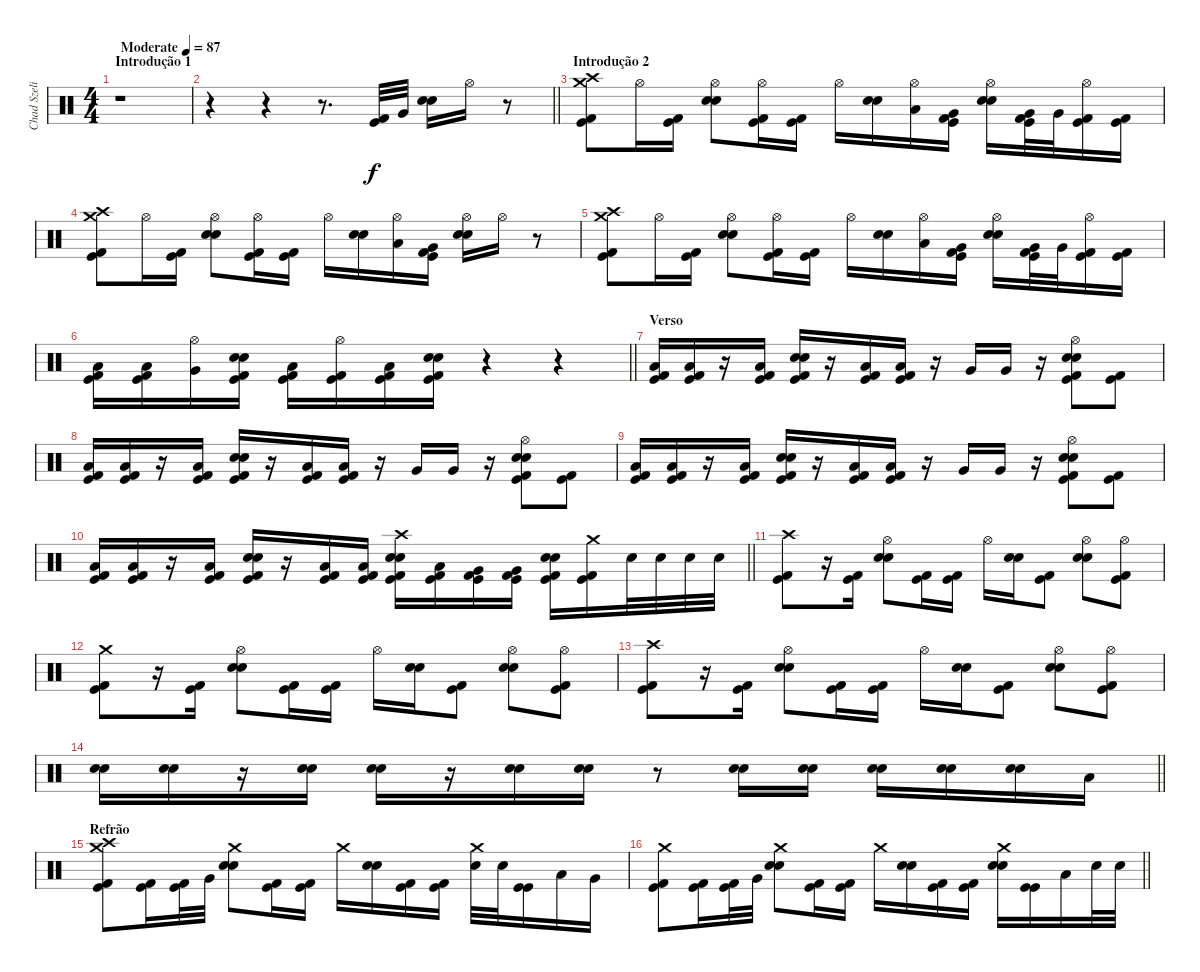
\track ("Chad Szeliga" "Chad Szeli") {instrument percussion}
\staff {score}
\articulation defaults
\ts (4 4)
\section ("" "Introdução 1")
\tempo (87 "Moderate")
\clef neutral
\ks c
r.1{dy f} |
\barLineRight lightlight
r.4 r.4 r.8{d} ("Kick (hit) 2" "Kick (hit)").32 "Very Low Tom (hit)".32 ("Snare (hit) 2" "Snare (hit) 2").16 "Hi-Hat (open)".16 r.8 |
\section ("" "Introdução 2")
("Crash high (hit)" "Kick (hit) 2" "Kick (hit)" "Crash medium (hit)").8 "Hi-Hat (open)".16 ("Kick (hit) 2" "Kick (hit)").16 ("Snare (hit) 2" "Snare (hit) 2" "Hi-Hat (open)").8 ("Kick (hit) 2" "Kick (hit)" "Hi-Hat (open)").16 ("Kick (hit) 2" "Kick (hit)").16 "Hi-Hat (open)".16 ("Snare (hit) 2" "Snare (hit) 2").16 ("Low Tom (hit)" "Hi-Hat (open)").16 ("Kick (hit) 2" "Kick (hit)" "Very Low Tom (hit)").16 ("Snare (hit) 2" "Snare (hit) 2" "Hi-Hat (open)").16 ("Kick (hit) 2" "Kick (hit)" "Very Low Tom (hit)").32 "Very Low Tom (hit)".32 ("Kick (hit) 2" "Kick (hit)" "Hi-Hat (open)").16 ("Kick (hit) 2" "Kick (hit)").16 |
("Crash high (hit)" "Kick (hit) 2" "Kick (hit)" "Crash medium (hit)").8 "Hi-Hat (open)".16 ("Kick (hit) 2" "Kick (hit)").16 ("Snare (hit) 2" "Snare (hit) 2" "Hi-Hat (open)").8 ("Kick (hit) 2" "Kick (hit)" "Hi-Hat (open)").16 ("Kick (hit) 2" "Kick (hit)").16 "Hi-Hat (open)".16 ("Snare (hit) 2" "Snare (hit) 2").16 ("Low Tom (hit)" "Hi-Hat (open)").16 ("Kick (hit) 2" "Kick (hit)" "Very Low Tom (hit)").16 ("Snare (hit) 2" "Snare (hit) 2" "Hi-Hat (open)").16 "Hi-Hat (open)".16 r.8 |
("Crash high (hit)" "Kick (hit) 2" "Kick (hit)" "Crash medium (hit)").8 "Hi-Hat (open)".16 ("Kick (hit) 2" "Kick (hit)").16 ("Snare (hit) 2" "Snare (hit) 2" "Hi-Hat (open)").8 ("Kick (hit) 2" "Kick (hit)" "Hi-Hat (open)").16 ("Kick (hit) 2" "Kick (hit)").16 "Hi-Hat (open)".16 ("Snare (hit) 2" "Snare (hit) 2").16 ("Low Tom (hit)" "Hi-Hat (open)").16 ("Kick (hit) 2" "Kick (hit)" "Very Low Tom (hit)").16 ("Snare (hit) 2" "Snare (hit) 2" "Hi-Hat (open)").16 ("Kick (hit) 2" "Kick (hit)" "Very Low Tom (hit)").32 "Very Low Tom (hit)".32 ("Kick (hit) 2" "Kick (hit)" "Hi-Hat (open)").16 ("Kick (hit) 2" "Kick (hit)").16 |
\barLineRight lightlight
("Kick (hit) 2" "Kick (hit)" "Low Tom (hit)").16 ("Kick (hit) 2" "Kick (hit)" "Low Tom (hit)").16 ("Very Low Tom (hit)" "Hi-Hat (open)").16 ("Kick (hit) 2" "Kick (hit)" "Snare (hit) 2" "Snare (hit) 2").16 ("Kick (hit) 2" "Kick (hit)" "Low Tom (hit)").16 ("Kick (hit) 2" "Kick (hit)" "Hi-Hat (open)").16 ("Kick (hit) 2" "Kick (hit)" "Low Tom (hit)").16 ("Kick (hit) 2" "Kick (hit)" "Snare (hit) 2" "Snare (hit) 2").16 r.4 r.4 |
\section ("" "Verso")
("Kick (hit) 2" "Kick (hit)" "Low Tom (hit)").16 ("Kick (hit) 2" "Kick (hit)" "Low Tom (hit)").16 r.16 ("Kick (hit) 2" "Kick (hit)" "Low Tom (hit)").16 ("Kick (hit) 2" "Kick (hit)" "Snare (hit) 2" "Snare (hit) 2").16 r.16 ("Kick (hit) 2" "Kick (hit)" "Low Tom (hit)").16 ("Kick (hit) 2" "Kick (hit)" "Low Tom (hit)").16 r.16 "Very Low Tom (hit)".16 "Very Low Tom (hit)".16 r.16 ("Kick (hit) 2" "Kick (hit)" "Snare (hit) 2" "Snare (hit) 2" "Hi-Hat (open)").8 ("Kick (hit) 2" "Kick (hit)").8 |
("Kick (hit) 2" "Kick (hit)" "Low Tom (hit)").16 ("Kick (hit) 2" "Kick (hit)" "Low Tom (hit)").16 r.16 ("Kick (hit) 2" "Kick (hit)" "Low Tom (hit)").16 ("Kick (hit) 2" "Kick (hit)" "Snare (hit) 2" "Snare (hit) 2").16 r.16 ("Kick (hit) 2" "Kick (hit)" "Low Tom (hit)").16 ("Kick (hit) 2" "Kick (hit)" "Low Tom (hit)").16 r.16 "Very Low Tom (hit)".16 "Very Low Tom (hit)".16 r.16 ("Kick (hit) 2" "Kick (hit)" "Snare (hit) 2" "Snare (hit) 2" "Hi-Hat (open)").8 ("Kick (hit) 2" "Kick (hit)").8 |
("Kick (hit) 2" "Kick (hit)" "Low Tom (hit)").16 ("Kick (hit) 2" "Kick (hit)" "Low Tom (hit)").16 r.16 ("Kick (hit) 2" "Kick (hit)" "Low Tom (hit)").16 ("Kick (hit) 2" "Kick (hit)" "Snare (hit) 2" "Snare (hit) 2").16 r.16 ("Kick (hit) 2" "Kick (hit)" "Low Tom (hit)").16 ("Kick (hit) 2" "Kick (hit)" "Low Tom (hit)").16 r.16 "Very Low Tom (hit)".16 "Very Low Tom (hit)".16 r.16 ("Kick (hit) 2" "Kick (hit)" "Snare (hit) 2" "Snare (hit) 2" "Hi-Hat (open)").8 ("Kick (hit) 2" "Kick (hit)").8 |
\barLineRight lightlight
("Kick (hit) 2" "Kick (hit)" "Low Tom (hit)").16 ("Kick (hit) 2" "Kick (hit)" "Low Tom (hit)").16 r.16 ("Kick (hit) 2" "Kick (hit)" "Low Tom (hit)").16 ("Kick (hit) 2" "Kick (hit)" "Snare (hit) 2" "Snare (hit) 2").16 r.16 ("Kick (hit) 2" "Kick (hit)" "Low Tom (hit)").16 ("Kick (hit) 2" "Kick (hit)" "Low Tom (hit)").16 ("Crash high (hit)" "Kick (hit) 2" "Kick (hit)" "Snare (hit) 2" "Snare (hit) 2").16 ("Kick (hit) 2" "Kick (hit)" "Low Tom (hit)").16 ("Kick (hit) 2" "Kick (hit)" "Very Low Tom (hit)").16 ("Kick (hit) 2" "Kick (hit)" "Very Low Tom (hit)").16 ("Kick (hit) 2" "Kick (hit)" "Snare (hit) 2" "Snare (hit) 2").16 ("Crash medium (hit)" "Kick (hit) 2" "Kick (hit)").16 "Snare (hit) 2".32 "Snare (hit) 2".32 "Snare (hit) 2".32 "Snare (hit) 2".32 |
("Crash high (hit)" "Kick (hit) 2" "Kick (hit)").8 r.16 ("Kick (hit) 2" "Kick (hit)").16 ("Snare (hit) 2" "Snare (hit) 2" "Hi-Hat (open)").8 ("Kick (hit) 2" "Kick (hit)").16 ("Kick (hit) 2" "Kick (hit)").16 "Hi-Hat (open)".16 ("Snare (hit) 2" "Snare (hit) 2").16 ("Kick (hit) 2" "Kick (hit)").8 ("Snare (hit) 2" "Snare (hit) 2" "Hi-Hat (open)").8 ("Kick (hit) 2" "Kick (hit)" "Hi-Hat (open)").8 |
("Crash medium (hit)" "Kick (hit) 2" "Kick (hit)").8 r.16 ("Kick (hit) 2" "Kick (hit)").16 ("Snare (hit) 2" "Snare (hit) 2" "Hi-Hat (open)").8 ("Kick (hit) 2" "Kick (hit)").16 ("Kick (hit) 2" "Kick (hit)").16 "Hi-Hat (open)".16 ("Snare (hit) 2" "Snare (hit) 2").16 ("Kick (hit) 2" "Kick (hit)").8 ("Snare (hit) 2" "Snare (hit) 2" "Hi-Hat (open)").8 ("Kick (hit) 2" "Kick (hit)" "Hi-Hat (open)").8 |
("Crash high (hit)" "Kick (hit) 2" "Kick (hit)").8 r.16 ("Kick (hit) 2" "Kick (hit)").16 ("Snare (hit) 2" "Snare (hit) 2" "Hi-Hat (open)").8 ("Kick (hit) 2" "Kick (hit)").16 ("Kick (hit) 2" "Kick (hit)").16 "Hi-Hat (open)".16 ("Snare (hit) 2" "Snare (hit) 2").16 ("Kick (hit) 2" "Kick (hit)").8 ("Snare (hit) 2" "Snare (hit) 2" "Hi-Hat (open)").8 ("Kick (hit) 2" "Kick (hit)" "Hi-Hat (open)").8 |
\barLineRight lightlight
("Snare (hit) 2" "Snare (hit) 2").16 ("Snare (hit) 2" "Snare (hit) 2").16 r.16 ("Snare (hit) 2" "Snare (hit) 2").16 ("Snare (hit) 2" "Snare (hit) 2").16 r.16 ("Snare (hit) 2" "Snare (hit) 2").16 ("Snare (hit) 2" "Snare (hit) 2").16 r.8 ("Snare (hit) 2" "Snare (hit) 2").16 ("Snare (hit) 2" "Snare (hit) 2").16 ("Snare (hit) 2" "Snare (hit) 2").16 ("Snare (hit) 2" "Snare (hit) 2").16 ("Snare (hit) 2" "Snare (hit) 2").16 "Low Tom (hit)".16 |
\section ("" "Refrão")
("Crash high (hit)" "Kick (hit) 2" "Kick (hit)" "Crash medium (hit)").8 ("Kick (hit) 2" "Kick (hit)").16 ("Kick (hit) 2" "Kick (hit)").32 "Very Low Tom (hit)".32 ("Crash medium (hit)" "Snare (hit) 2" "Snare (hit) 2").8 ("Kick (hit) 2" "Kick (hit)").16 ("Kick (hit) 2" "Kick (hit)").16 "Crash medium (hit)".16 ("Snare (hit) 2" "Snare (hit) 2").16 ("Kick (hit) 2" "Kick (hit)").16 ("Kick (hit) 2" "Kick (hit)").16 ("Crash medium (hit)" "Snare (hit) 2").32 "Snare (hit) 2".32 ("Kick (hit)" "Kick (hit)").16 "Low Tom (hit)".16 "Very Low Tom (hit)".16 |
\barLineRight lightlight
("Crash medium (hit)" "Kick (hit) 2" "Kick (hit)").8 ("Kick (hit) 2" "Kick (hit)").16 ("Kick (hit) 2" "Kick (hit)").32 "Very Low Tom (hit)".32 ("Crash medium (hit)" "Snare (hit) 2" "Snare (hit) 2").8 ("Kick (hit) 2" "Kick (hit)").16 ("Kick (hit) 2" "Kick (hit)").16 "Crash medium (hit)".16 ("Snare (hit) 2" "Snare (hit) 2").16 ("Kick (hit) 2" "Kick (hit)").16 ("Kick (hit) 2" "Kick (hit)").16 ("Crash medium (hit)" "Snare (hit) 2" "Snare (hit) 2").16 ("Kick (hit)" "Kick (hit)").16 "Low Tom (hit)".16 "Snare (hit) 2".32 "Snare (hit) 2".32
